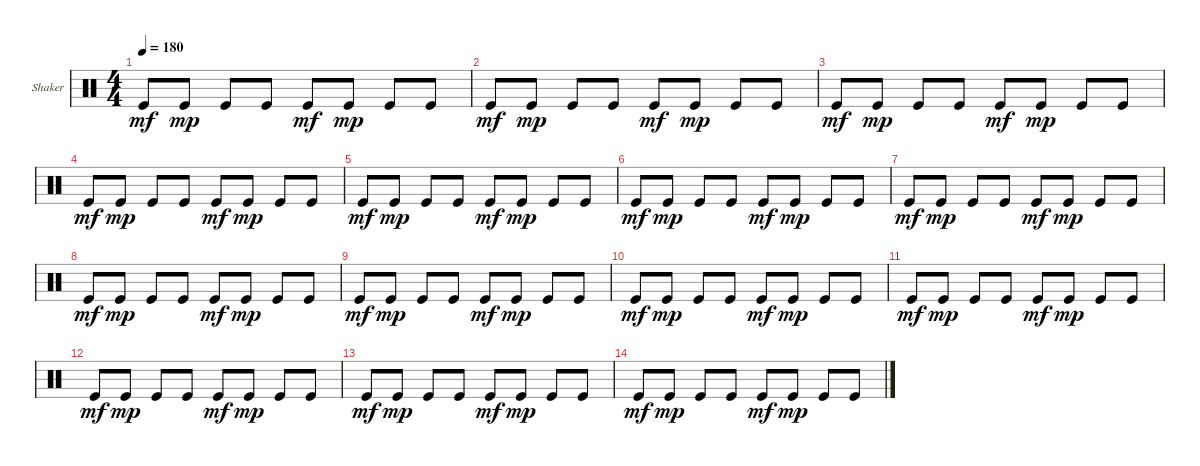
\defaultSystemsLayout 4
\bracketExtendMode groupsimilarinstruments
\firstSystemTrackNameOrientation horizontal
\otherSystemsTrackNameOrientation horizontal
\track ("Shaker" "Shaker") {instrument percussion}
\staff {score}
\articulation defaults
\ts (4 4)
\tempo 180
\clef neutral
\ks c "Kick (hit)".8{dy mf} "Kick (hit)".8{dy mp} "Kick (hit)".8 "Kick (hit)".8 "Kick (hit)".8{dy mf} "Kick (hit)".8{dy mp} "Kick (hit)".8 "Kick (hit)".8
|
"Kick (hit)".8{dy mf} "Kick (hit)".8{dy mp} "Kick (hit)".8 "Kick (hit)".8 "Kick (hit)".8{dy mf} "Kick (hit)".8{dy mp} "Kick (hit)".8 "Kick (hit)".8 |
"Kick (hit)".8{dy mf} "Kick (hit)".8{dy mp} "Kick (hit)".8 "Kick (hit)".8 "Kick (hit)".8{dy mf} "Kick (hit)".8{dy mp} "Kick (hit)".8 "Kick (hit)".8 |
"Kick (hit)".8{dy mf} "Kick (hit)".8{dy mp} "Kick (hit)".8 "Kick (hit)".8 "Kick (hit)".8{dy mf} "Kick (hit)".8{dy mp} "Kick (hit)".8 "Kick (hit)".8 |
"Kick (hit)".8{dy mf} "Kick (hit)".8{dy mp} "Kick (hit)".8 "Kick (hit)".8 "Kick (hit)".8{dy mf} "Kick (hit)".8{dy mp} "Kick (hit)".8 "Kick (hit)".8 |
"Kick (hit)".8{dy mf} "Kick (hit)".8{dy mp} "Kick (hit)".8 "Kick (hit)".8 "Kick (hit)".8{dy mf} "Kick (hit)".8{dy mp} "Kick (hit)".8 "Kick (hit)".8 |
"Kick (hit)".8{dy mf} "Kick (hit)".8{dy mp} "Kick (hit)".8 "Kick (hit)".8 "Kick (hit)".8{dy mf} "Kick (hit)".8{dy mp} "Kick (hit)".8 "Kick (hit)".8 |
"Kick (hit)".8{dy mf} "Kick (hit)".8{dy mp} "Kick (hit)".8 "Kick (hit)".8 "Kick (hit)".8{dy mf} "Kick (hit)".8{dy mp} "Kick (hit)".8 "Kick (hit)".8 |
"Kick (hit)".8{dy mf} "Kick (hit)".8{dy mp} "Kick (hit)".8 "Kick (hit)".8 "Kick (hit)".8{dy mf} "Kick (hit)".8{dy mp} "Kick (hit)".8 "Kick (hit)".8 |
"Kick (hit)".8{dy mf} "Kick (hit)".8{dy mp} "Kick (hit)".8 "Kick (hit)".8 "Kick (hit)".8{dy mf} "Kick (hit)".8{dy mp} "Kick (hit)".8 "Kick (hit)".8 |
"Kick (hit)".8{dy mf} "Kick (hit)".8{dy mp} "Kick (hit)".8 "Kick (hit)".8 "Kick (hit)".8{dy mf} "Kick (hit)".8{dy mp} "Kick (hit)".8 "Kick (hit)".8 |
"Kick (hit)".8{dy mf} "Kick (hit)".8{dy mp} "Kick (hit)".8 "Kick (hit)".8 "Kick (hit)".8{dy mf} "Kick (hit)".8{dy mp} "Kick (hit)".8 "Kick (hit)".8 |
"Kick (hit)".8{dy mf} "Kick (hit)".8{dy mp} "Kick (hit)".8 "Kick (hit)".8 "Kick (hit)".8{dy mf} "Kick (hit)".8{dy mp} "Kick (hit)".8 "Kick (hit)".8 |
"Kick (hit)".8{dy mf} "Kick (hit)".8{dy mp} "Kick (hit)".8 "Kick (hit)".8 "Kick (hit)".8{dy mf} "Kick (hit)".8{dy mp} "Kick (hit)".8 "Kick (hit)".8
